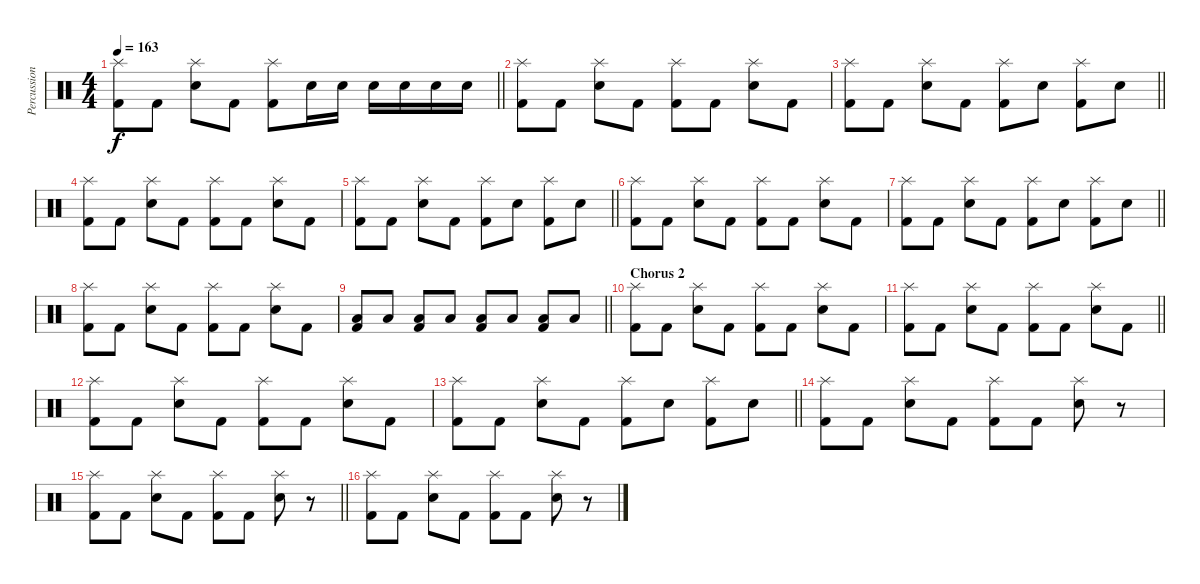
\track ("Percussion" "Percussion") {solo instrument percussion}
\staff {score}
\articulation defaults
\ts (4 4)
\tempo 163
\clef neutral
\barLineRight lightlight
\ks c
("Splash (hit)" "Kick (hit) 2").8{dy f} "Kick (hit) 2".8 ("Splash (hit)" "Snare (hit) 2").8 "Kick (hit) 2".8 ("Splash (hit)" "Kick (hit) 2").8 "Snare (hit) 2".16 "Snare (hit) 2".16 "Snare (hit) 2".16 "Snare (hit) 2".16 "Snare (hit) 2".16 "Snare (hit) 2".16 |
("Splash (hit)" "Kick (hit) 2").8 "Kick (hit) 2".8 ("Splash (hit)" "Snare (hit) 2").8 "Kick (hit) 2".8 ("Splash (hit)" "Kick (hit) 2").8 "Kick (hit) 2".8 ("Splash (hit)" "Snare (hit) 2").8 "Kick (hit) 2".8 |
\barLineRight lightlight
("Splash (hit)" "Kick (hit) 2").8 "Kick (hit) 2".8 ("Splash (hit)" "Snare (hit) 2").8 "Kick (hit) 2".8 ("Splash (hit)" "Kick (hit) 2").8 "Snare (hit) 2".8 ("Splash (hit)" "Kick (hit) 2").8 "Snare (hit) 2".8 |
("Splash (hit)" "Kick (hit) 2").8 "Kick (hit) 2".8 ("Splash (hit)" "Snare (hit) 2").8 "Kick (hit) 2".8 ("Splash (hit)" "Kick (hit) 2").8 "Kick (hit) 2".8 ("Splash (hit)" "Snare (hit) 2").8 "Kick (hit) 2".8 |
\barLineRight lightlight
("Splash (hit)" "Kick (hit) 2").8 "Kick (hit) 2".8 ("Splash (hit)" "Snare (hit) 2").8 "Kick (hit) 2".8 ("Splash (hit)" "Kick (hit) 2").8 "Snare (hit) 2".8 ("Splash (hit)" "Kick (hit) 2").8 "Snare (hit) 2".8 |
("Splash (hit)" "Kick (hit) 2").8 "Kick (hit) 2".8 ("Splash (hit)" "Snare (hit) 2").8 "Kick (hit) 2".8 ("Splash (hit)" "Kick (hit) 2").8 "Kick (hit) 2".8 ("Splash (hit)" "Snare (hit) 2").8 "Kick (hit) 2".8 |
\barLineRight lightlight
("Splash (hit)" "Kick (hit) 2").8 "Kick (hit) 2".8 ("Splash (hit)" "Snare (hit) 2").8 "Kick (hit) 2".8 ("Splash (hit)" "Kick (hit) 2").8 "Snare (hit) 2".8 ("Splash (hit)" "Kick (hit) 2").8 "Snare (hit) 2".8 |
("Splash (hit)" "Kick (hit) 2").8 "Kick (hit) 2".8 ("Splash (hit)" "Snare (hit) 2").8 "Kick (hit) 2".8 ("Splash (hit)" "Kick (hit) 2").8 "Kick (hit) 2".8 ("Splash (hit)" "Snare (hit) 2").8 "Kick (hit) 2".8 |
\barLineRight lightlight
("Low Floor Tom (hit)" "Kick (hit) 2").8 "Low Floor Tom (hit)".8 ("Low Floor Tom (hit)" "Kick (hit) 2").8 "Low Floor Tom (hit)".8 ("Low Floor Tom (hit)" "Kick (hit) 2").8 "Low Floor Tom (hit)".8 ("Low Floor Tom (hit)" "Kick (hit) 2").8 "Low Floor Tom (hit)".8 |
\section ("" "Chorus 2")
("Splash (hit)" "Kick (hit) 2").8 "Kick (hit) 2".8 ("Splash (hit)" "Snare (hit) 2").8 "Kick (hit) 2".8 ("Splash (hit)" "Kick (hit) 2").8 "Kick (hit) 2".8 ("Splash (hit)" "Snare (hit) 2").8 "Kick (hit) 2".8 |
\barLineRight lightlight
("Splash (hit)" "Kick (hit) 2").8 "Kick (hit) 2".8 ("Splash (hit)" "Snare (hit) 2").8 "Kick (hit) 2".8 ("Splash (hit)" "Kick (hit) 2").8 "Kick (hit) 2".8 ("Splash (hit)" "Snare (hit) 2").8 "Kick (hit) 2".8 |
("Splash (hit)" "Kick (hit) 2").8 "Kick (hit) 2".8 ("Splash (hit)" "Snare (hit) 2").8 "Kick (hit) 2".8 ("Splash (hit)" "Kick (hit) 2").8 "Kick (hit) 2".8 ("Splash (hit)" "Snare (hit) 2").8 "Kick (hit) 2".8 |
\barLineRight lightlight
("Splash (hit)" "Kick (hit) 2").8 "Kick (hit) 2".8 ("Splash (hit)" "Snare (hit) 2").8 "Kick (hit) 2".8 ("Splash (hit)" "Kick (hit) 2").8 "Snare (hit) 2".8 ("Splash (hit)" "Kick (hit) 2").8 "Snare (hit) 2".8 |
("Splash (hit)" "Kick (hit) 2").8 "Kick (hit) 2".8 ("Splash (hit)" "Snare (hit) 2").8 "Kick (hit) 2".8 ("Splash (hit)" "Kick (hit) 2").8 "Kick (hit) 2".8 ("Splash (hit)" "Snare (hit) 2").8 r.8 |
\barLineRight lightlight
("Splash (hit)" "Kick (hit) 2").8 "Kick (hit) 2".8 ("Splash (hit)" "Snare (hit) 2").8 "Kick (hit) 2".8 ("Splash (hit)" "Kick (hit) 2").8 "Kick (hit) 2".8 ("Splash (hit)" "Snare (hit) 2").8 r.8 |
("Splash (hit)" "Kick (hit) 2").8 "Kick (hit) 2".8 ("Splash (hit)" "Snare (hit) 2").8 "Kick (hit) 2".8 ("Splash (hit)" "Kick (hit) 2").8 "Kick (hit) 2".8 ("Splash (hit)" "Snare (hit) 2").8 r.8
